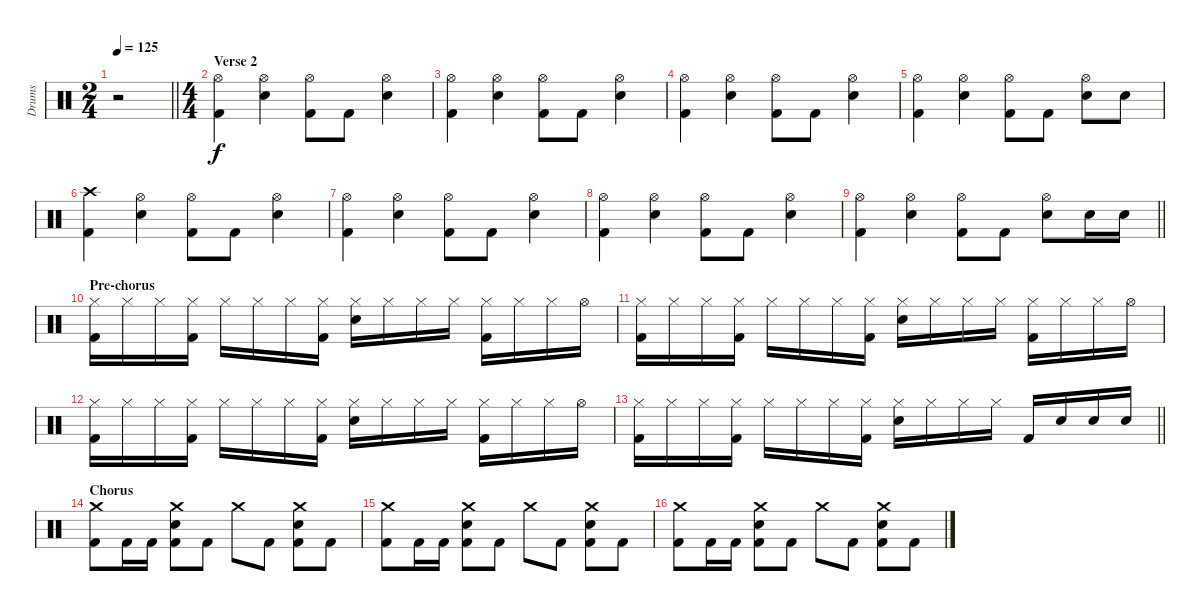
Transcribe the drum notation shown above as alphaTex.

\track ("Drums" "Drums") {instrument percussion}
\staff {score}
\articulation defaults
\ts (2 4)
\tempo 125
\clef neutral
\barLineRight lightlight
\ks c
r.2{dy f} |
\ts (4 4)
\section ("" "Verse 2")
("Hi-Hat (open)" "Kick (hit) 2").4 ("Hi-Hat (open)" "Electric Snare (hit)").4 ("Hi-Hat (open)" "Kick (hit) 2").8 "Kick (hit) 2".8 ("Hi-Hat (open)" "Electric Snare (hit)").4 |
("Hi-Hat (open)" "Kick (hit) 2").4 ("Hi-Hat (open)" "Electric Snare (hit)").4 ("Hi-Hat (open)" "Kick (hit) 2").8 "Kick (hit) 2".8 ("Hi-Hat (open)" "Electric Snare (hit)").4 |
("Hi-Hat (open)" "Kick (hit) 2").4 ("Hi-Hat (open)" "Electric Snare (hit)").4 ("Hi-Hat (open)" "Kick (hit) 2").8 "Kick (hit) 2".8 ("Hi-Hat (open)" "Electric Snare (hit)").4 |
("Hi-Hat (open)" "Kick (hit) 2").4 ("Hi-Hat (open)" "Electric Snare (hit)").4 ("Hi-Hat (open)" "Kick (hit) 2").8 "Kick (hit) 2".8 ("Hi-Hat (open)" "Electric Snare (hit)").8 "Electric Snare (hit)".8 |
("Crash high (hit)" "Kick (hit) 2").4 ("Hi-Hat (open)" "Electric Snare (hit)").4 ("Hi-Hat (open)" "Kick (hit) 2").8 "Kick (hit) 2".8 ("Hi-Hat (open)" "Electric Snare (hit)").4 |
("Hi-Hat (open)" "Kick (hit) 2").4 ("Hi-Hat (open)" "Electric Snare (hit)").4 ("Hi-Hat (open)" "Kick (hit) 2").8 "Kick (hit) 2".8 ("Hi-Hat (open)" "Electric Snare (hit)").4 |
("Hi-Hat (open)" "Kick (hit) 2").4 ("Hi-Hat (open)" "Electric Snare (hit)").4 ("Hi-Hat (open)" "Kick (hit) 2").8 "Kick (hit) 2".8 ("Hi-Hat (open)" "Electric Snare (hit)").4 |
\barLineRight lightlight
("Hi-Hat (open)" "Kick (hit) 2").4 ("Hi-Hat (open)" "Electric Snare (hit)").4 ("Hi-Hat (open)" "Kick (hit) 2").8 "Kick (hit) 2".8 ("Hi-Hat (open)" "Electric Snare (hit)").8 "Electric Snare (hit)".16 "Electric Snare (hit)".16 |
\section ("" "Pre-chorus")
("Hi-Hat (closed)" "Kick (hit) 2").16 "Hi-Hat (closed)".16 "Hi-Hat (closed)".16 ("Hi-Hat (closed)" "Kick (hit) 2").16 "Hi-Hat (closed)".16 "Hi-Hat (closed)".16 "Hi-Hat (closed)".16 ("Hi-Hat (closed)" "Kick (hit) 2").16 ("Hi-Hat (closed)" "Electric Snare (hit)").16 "Hi-Hat (closed)".16 "Hi-Hat (closed)".16 "Hi-Hat (closed)".16 ("Hi-Hat (closed)" "Kick (hit) 2").16 "Hi-Hat (closed)".16 "Hi-Hat (closed)".16 "Hi-Hat (open)".16 |
("Hi-Hat (closed)" "Kick (hit) 2").16 "Hi-Hat (closed)".16 "Hi-Hat (closed)".16 ("Hi-Hat (closed)" "Kick (hit) 2").16 "Hi-Hat (closed)".16 "Hi-Hat (closed)".16 "Hi-Hat (closed)".16 ("Hi-Hat (closed)" "Kick (hit) 2").16 ("Hi-Hat (closed)" "Electric Snare (hit)").16 "Hi-Hat (closed)".16 "Hi-Hat (closed)".16 "Hi-Hat (closed)".16 ("Hi-Hat (closed)" "Kick (hit) 2").16 "Hi-Hat (closed)".16 "Hi-Hat (closed)".16 "Hi-Hat (open)".16 |
("Hi-Hat (closed)" "Kick (hit) 2").16 "Hi-Hat (closed)".16 "Hi-Hat (closed)".16 ("Hi-Hat (closed)" "Kick (hit) 2").16 "Hi-Hat (closed)".16 "Hi-Hat (closed)".16 "Hi-Hat (closed)".16 ("Hi-Hat (closed)" "Kick (hit) 2").16 ("Hi-Hat (closed)" "Electric Snare (hit)").16 "Hi-Hat (closed)".16 "Hi-Hat (closed)".16 "Hi-Hat (closed)".16 ("Hi-Hat (closed)" "Kick (hit) 2").16 "Hi-Hat (closed)".16 "Hi-Hat (closed)".16 "Hi-Hat (open)".16 |
\barLineRight lightlight
("Hi-Hat (closed)" "Kick (hit) 2").16 "Hi-Hat (closed)".16 "Hi-Hat (closed)".16 ("Hi-Hat (closed)" "Kick (hit) 2").16 "Hi-Hat (closed)".16 "Hi-Hat (closed)".16 "Hi-Hat (closed)".16 ("Hi-Hat (closed)" "Kick (hit) 2").16 ("Hi-Hat (closed)" "Electric Snare (hit)").16 "Hi-Hat (closed)".16 "Hi-Hat (closed)".16 "Hi-Hat (closed)".16 "Kick (hit) 2".16 "Electric Snare (hit)".16 "Electric Snare (hit)".16 "Electric Snare (hit)".16 |
\section ("" "Chorus")
("Crash medium (hit)" "Kick (hit) 2").8 "Kick (hit) 2".16 "Kick (hit) 2".16 ("Crash medium (hit)" "Electric Snare (hit)" "Kick (hit) 2").8 "Kick (hit) 2".8 "Crash medium (hit)".8 "Kick (hit) 2".8 ("Crash medium (hit)" "Electric Snare (hit)" "Kick (hit) 2").8 "Kick (hit) 2".8 |
("Crash medium (hit)" "Kick (hit) 2").8 "Kick (hit) 2".16 "Kick (hit) 2".16 ("Crash medium (hit)" "Electric Snare (hit)" "Kick (hit) 2").8 "Kick (hit) 2".8 "Crash medium (hit)".8 "Kick (hit) 2".8 ("Crash medium (hit)" "Electric Snare (hit)" "Kick (hit) 2").8 "Kick (hit) 2".8 |
("Crash medium (hit)" "Kick (hit) 2").8 "Kick (hit) 2".16 "Kick (hit) 2".16 ("Crash medium (hit)" "Electric Snare (hit)" "Kick (hit) 2").8 "Kick (hit) 2".8 "Crash medium (hit)".8 "Kick (hit) 2".8 ("Crash medium (hit)" "Electric Snare (hit)" "Kick (hit) 2").8 "Kick (hit) 2".8
